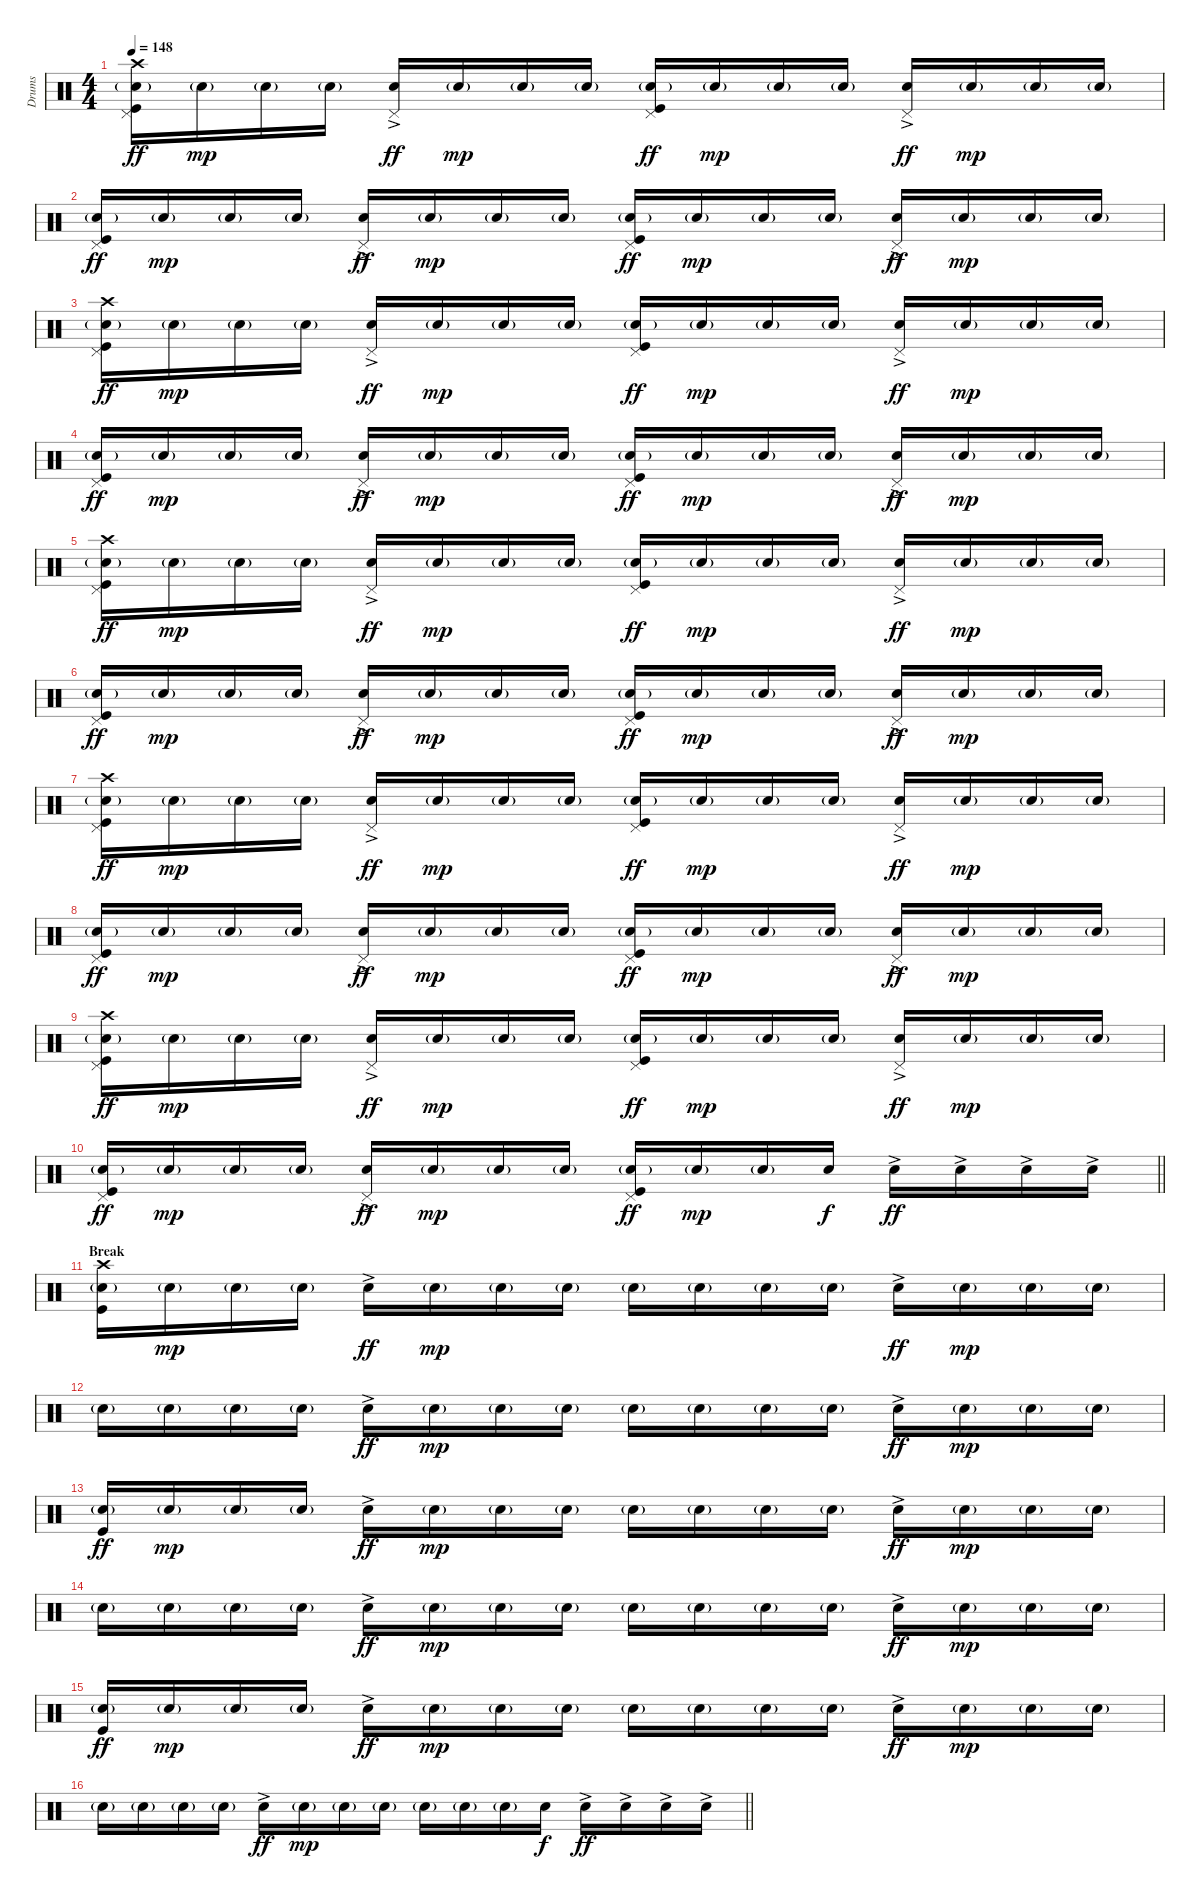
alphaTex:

\track ("Drums" "Drums") {instrument percussion}
\staff {score}
\articulation defaults
\ts (4 4)
\tempo 148
\clef neutral
\ks c
("Crash high (hit)" "Pedal Hi-Hat (hit)" "Snare (hit) 2"{g} "Kick (hit)").16{dy ff} "Snare (hit) 2"{g}.16{dy mp} "Snare (hit) 2"{g}.16 "Snare (hit) 2"{g}.16 ("Pedal Hi-Hat (hit)" "Electric Snare (hit)"{ac}).16{dy ff} "Snare (hit) 2"{g}.16{dy mp} "Snare (hit) 2"{g}.16 "Snare (hit) 2"{g}.16 ("Pedal Hi-Hat (hit)" "Snare (hit) 2"{g} "Kick (hit)").16{dy ff} "Snare (hit) 2"{g}.16{dy mp} "Snare (hit) 2"{g}.16 "Snare (hit) 2"{g}.16 ("Pedal Hi-Hat (hit)" "Electric Snare (hit)"{ac}).16{dy ff} "Snare (hit) 2"{g}.16{dy mp} "Snare (hit) 2"{g}.16 "Snare (hit) 2"{g}.16 |
("Pedal Hi-Hat (hit)" "Snare (hit) 2"{g} "Kick (hit)").16{dy ff} "Snare (hit) 2"{g}.16{dy mp} "Snare (hit) 2"{g}.16 "Snare (hit) 2"{g}.16 ("Pedal Hi-Hat (hit)" "Electric Snare (hit)"{ac}).16{dy ff} "Snare (hit) 2"{g}.16{dy mp} "Snare (hit) 2"{g}.16 "Snare (hit) 2"{g}.16 ("Pedal Hi-Hat (hit)" "Snare (hit) 2"{g} "Kick (hit)").16{dy ff} "Snare (hit) 2"{g}.16{dy mp} "Snare (hit) 2"{g}.16 "Snare (hit) 2"{g}.16 ("Pedal Hi-Hat (hit)" "Electric Snare (hit)"{ac}).16{dy ff} "Snare (hit) 2"{g}.16{dy mp} "Snare (hit) 2"{g}.16 "Snare (hit) 2"{g}.16 |
("Crash high (hit)" "Pedal Hi-Hat (hit)" "Snare (hit) 2"{g} "Kick (hit)").16{dy ff} "Snare (hit) 2"{g}.16{dy mp} "Snare (hit) 2"{g}.16 "Snare (hit) 2"{g}.16 ("Pedal Hi-Hat (hit)" "Electric Snare (hit)"{ac}).16{dy ff} "Snare (hit) 2"{g}.16{dy mp} "Snare (hit) 2"{g}.16 "Snare (hit) 2"{g}.16 ("Pedal Hi-Hat (hit)" "Snare (hit) 2"{g} "Kick (hit)").16{dy ff} "Snare (hit) 2"{g}.16{dy mp} "Snare (hit) 2"{g}.16 "Snare (hit) 2"{g}.16 ("Pedal Hi-Hat (hit)" "Electric Snare (hit)"{ac}).16{dy ff} "Snare (hit) 2"{g}.16{dy mp} "Snare (hit) 2"{g}.16 "Snare (hit) 2"{g}.16 |
("Pedal Hi-Hat (hit)" "Snare (hit) 2"{g} "Kick (hit)").16{dy ff} "Snare (hit) 2"{g}.16{dy mp} "Snare (hit) 2"{g}.16 "Snare (hit) 2"{g}.16 ("Pedal Hi-Hat (hit)" "Electric Snare (hit)"{ac}).16{dy ff} "Snare (hit) 2"{g}.16{dy mp} "Snare (hit) 2"{g}.16 "Snare (hit) 2"{g}.16 ("Pedal Hi-Hat (hit)" "Snare (hit) 2"{g} "Kick (hit)").16{dy ff} "Snare (hit) 2"{g}.16{dy mp} "Snare (hit) 2"{g}.16 "Snare (hit) 2"{g}.16 ("Pedal Hi-Hat (hit)" "Electric Snare (hit)"{ac}).16{dy ff} "Snare (hit) 2"{g}.16{dy mp} "Snare (hit) 2"{g}.16 "Snare (hit) 2"{g}.16 |
("Crash high (hit)" "Pedal Hi-Hat (hit)" "Snare (hit) 2"{g} "Kick (hit)").16{dy ff} "Snare (hit) 2"{g}.16{dy mp} "Snare (hit) 2"{g}.16 "Snare (hit) 2"{g}.16 ("Pedal Hi-Hat (hit)" "Electric Snare (hit)"{ac}).16{dy ff} "Snare (hit) 2"{g}.16{dy mp} "Snare (hit) 2"{g}.16 "Snare (hit) 2"{g}.16 ("Pedal Hi-Hat (hit)" "Snare (hit) 2"{g} "Kick (hit)").16{dy ff} "Snare (hit) 2"{g}.16{dy mp} "Snare (hit) 2"{g}.16 "Snare (hit) 2"{g}.16 ("Pedal Hi-Hat (hit)" "Electric Snare (hit)"{ac}).16{dy ff} "Snare (hit) 2"{g}.16{dy mp} "Snare (hit) 2"{g}.16 "Snare (hit) 2"{g}.16 |
("Pedal Hi-Hat (hit)" "Snare (hit) 2"{g} "Kick (hit)").16{dy ff} "Snare (hit) 2"{g}.16{dy mp} "Snare (hit) 2"{g}.16 "Snare (hit) 2"{g}.16 ("Pedal Hi-Hat (hit)" "Electric Snare (hit)"{ac}).16{dy ff} "Snare (hit) 2"{g}.16{dy mp} "Snare (hit) 2"{g}.16 "Snare (hit) 2"{g}.16 ("Pedal Hi-Hat (hit)" "Snare (hit) 2"{g} "Kick (hit)").16{dy ff} "Snare (hit) 2"{g}.16{dy mp} "Snare (hit) 2"{g}.16 "Snare (hit) 2"{g}.16 ("Pedal Hi-Hat (hit)" "Electric Snare (hit)"{ac}).16{dy ff} "Snare (hit) 2"{g}.16{dy mp} "Snare (hit) 2"{g}.16 "Snare (hit) 2"{g}.16 |
("Crash high (hit)" "Pedal Hi-Hat (hit)" "Snare (hit) 2"{g} "Kick (hit)").16{dy ff} "Snare (hit) 2"{g}.16{dy mp} "Snare (hit) 2"{g}.16 "Snare (hit) 2"{g}.16 ("Pedal Hi-Hat (hit)" "Electric Snare (hit)"{ac}).16{dy ff} "Snare (hit) 2"{g}.16{dy mp} "Snare (hit) 2"{g}.16 "Snare (hit) 2"{g}.16 ("Pedal Hi-Hat (hit)" "Snare (hit) 2"{g} "Kick (hit)").16{dy ff} "Snare (hit) 2"{g}.16{dy mp} "Snare (hit) 2"{g}.16 "Snare (hit) 2"{g}.16 ("Pedal Hi-Hat (hit)" "Electric Snare (hit)"{ac}).16{dy ff} "Snare (hit) 2"{g}.16{dy mp} "Snare (hit) 2"{g}.16 "Snare (hit) 2"{g}.16 |
("Pedal Hi-Hat (hit)" "Snare (hit) 2"{g} "Kick (hit)").16{dy ff} "Snare (hit) 2"{g}.16{dy mp} "Snare (hit) 2"{g}.16 "Snare (hit) 2"{g}.16 ("Pedal Hi-Hat (hit)" "Electric Snare (hit)"{ac}).16{dy ff} "Snare (hit) 2"{g}.16{dy mp} "Snare (hit) 2"{g}.16 "Snare (hit) 2"{g}.16 ("Pedal Hi-Hat (hit)" "Snare (hit) 2"{g} "Kick (hit)").16{dy ff} "Snare (hit) 2"{g}.16{dy mp} "Snare (hit) 2"{g}.16 "Snare (hit) 2"{g}.16 ("Pedal Hi-Hat (hit)" "Electric Snare (hit)"{ac}).16{dy ff} "Snare (hit) 2"{g}.16{dy mp} "Snare (hit) 2"{g}.16 "Snare (hit) 2"{g}.16 |
("Crash high (hit)" "Pedal Hi-Hat (hit)" "Snare (hit) 2"{g} "Kick (hit)").16{dy ff} "Snare (hit) 2"{g}.16{dy mp} "Snare (hit) 2"{g}.16 "Snare (hit) 2"{g}.16 ("Pedal Hi-Hat (hit)" "Electric Snare (hit)"{ac}).16{dy ff} "Snare (hit) 2"{g}.16{dy mp} "Snare (hit) 2"{g}.16 "Snare (hit) 2"{g}.16 ("Pedal Hi-Hat (hit)" "Snare (hit) 2"{g} "Kick (hit)").16{dy ff} "Snare (hit) 2"{g}.16{dy mp} "Snare (hit) 2"{g}.16 "Snare (hit) 2"{g}.16 ("Pedal Hi-Hat (hit)" "Electric Snare (hit)"{ac}).16{dy ff} "Snare (hit) 2"{g}.16{dy mp} "Snare (hit) 2"{g}.16 "Snare (hit) 2"{g}.16 |
\barLineRight lightlight
("Pedal Hi-Hat (hit)" "Snare (hit) 2"{g} "Kick (hit)").16{dy ff} "Snare (hit) 2"{g}.16{dy mp} "Snare (hit) 2"{g}.16 "Snare (hit) 2"{g}.16 ("Pedal Hi-Hat (hit)" "Electric Snare (hit)"{ac}).16{dy ff} "Snare (hit) 2"{g}.16{dy mp} "Snare (hit) 2"{g}.16 "Snare (hit) 2"{g}.16 ("Pedal Hi-Hat (hit)" "Snare (hit) 2"{g} "Kick (hit)").16{dy ff} "Snare (hit) 2"{g}.16{dy mp} "Snare (hit) 2"{g}.16 "Electric Snare (hit)".16{dy f} "Electric Snare (hit)"{ac}.16{dy ff} "Electric Snare (hit)"{ac}.16 "Electric Snare (hit)"{ac}.16 "Electric Snare (hit)"{ac}.16 |
\section ("" "Break")
("Crash high (hit)" "Snare (hit) 2"{g} "Kick (hit)").16 "Snare (hit) 2"{g}.16{dy mp} "Snare (hit) 2"{g}.16 "Snare (hit) 2"{g}.16 "Electric Snare (hit)"{ac}.16{dy ff} "Snare (hit) 2"{g}.16{dy mp} "Snare (hit) 2"{g}.16 "Snare (hit) 2"{g}.16 "Snare (hit) 2"{g}.16 "Snare (hit) 2"{g}.16 "Snare (hit) 2"{g}.16 "Snare (hit) 2"{g}.16 "Electric Snare (hit)"{ac}.16{dy ff} "Snare (hit) 2"{g}.16{dy mp} "Snare (hit) 2"{g}.16 "Snare (hit) 2"{g}.16 |
"Snare (hit) 2"{g}.16 "Snare (hit) 2"{g}.16 "Snare (hit) 2"{g}.16 "Snare (hit) 2"{g}.16 "Electric Snare (hit)"{ac}.16{dy ff} "Snare (hit) 2"{g}.16{dy mp} "Snare (hit) 2"{g}.16 "Snare (hit) 2"{g}.16 "Snare (hit) 2"{g}.16 "Snare (hit) 2"{g}.16 "Snare (hit) 2"{g}.16 "Snare (hit) 2"{g}.16 "Electric Snare (hit)"{ac}.16{dy ff} "Snare (hit) 2"{g}.16{dy mp} "Snare (hit) 2"{g}.16 "Snare (hit) 2"{g}.16 |
("Snare (hit) 2"{g} "Kick (hit)").16{dy ff} "Snare (hit) 2"{g}.16{dy mp} "Snare (hit) 2"{g}.16 "Snare (hit) 2"{g}.16 "Electric Snare (hit)"{ac}.16{dy ff} "Snare (hit) 2"{g}.16{dy mp} "Snare (hit) 2"{g}.16 "Snare (hit) 2"{g}.16 "Snare (hit) 2"{g}.16 "Snare (hit) 2"{g}.16 "Snare (hit) 2"{g}.16 "Snare (hit) 2"{g}.16 "Electric Snare (hit)"{ac}.16{dy ff} "Snare (hit) 2"{g}.16{dy mp} "Snare (hit) 2"{g}.16 "Snare (hit) 2"{g}.16 |
"Snare (hit) 2"{g}.16 "Snare (hit) 2"{g}.16 "Snare (hit) 2"{g}.16 "Snare (hit) 2"{g}.16 "Electric Snare (hit)"{ac}.16{dy ff} "Snare (hit) 2"{g}.16{dy mp} "Snare (hit) 2"{g}.16 "Snare (hit) 2"{g}.16 "Snare (hit) 2"{g}.16 "Snare (hit) 2"{g}.16 "Snare (hit) 2"{g}.16 "Snare (hit) 2"{g}.16 "Electric Snare (hit)"{ac}.16{dy ff} "Snare (hit) 2"{g}.16{dy mp} "Snare (hit) 2"{g}.16 "Snare (hit) 2"{g}.16 |
("Snare (hit) 2"{g} "Kick (hit)").16{dy ff} "Snare (hit) 2"{g}.16{dy mp} "Snare (hit) 2"{g}.16 "Snare (hit) 2"{g}.16 "Electric Snare (hit)"{ac}.16{dy ff} "Snare (hit) 2"{g}.16{dy mp} "Snare (hit) 2"{g}.16 "Snare (hit) 2"{g}.16 "Snare (hit) 2"{g}.16 "Snare (hit) 2"{g}.16 "Snare (hit) 2"{g}.16 "Snare (hit) 2"{g}.16 "Electric Snare (hit)"{ac}.16{dy ff} "Snare (hit) 2"{g}.16{dy mp} "Snare (hit) 2"{g}.16 "Snare (hit) 2"{g}.16 |
\barLineRight lightlight "Snare (hit) 2"{g}.16 "Snare (hit) 2"{g}.16 "Snare (hit) 2"{g}.16 "Snare (hit) 2"{g}.16 "Electric Snare (hit)"{ac}.16{dy ff} "Snare (hit) 2"{g}.16{dy mp} "Snare (hit) 2"{g}.16 "Snare (hit) 2"{g}.16 "Snare (hit) 2"{g}.16 "Snare (hit) 2"{g}.16 "Snare (hit) 2"{g}.16 "Electric Snare (hit)".16{dy f} "Electric Snare (hit)"{ac}.16{dy ff} "Electric Snare (hit)"{ac}.16 "Electric Snare (hit)"{ac}.16 "Electric Snare (hit)"{ac}.16
